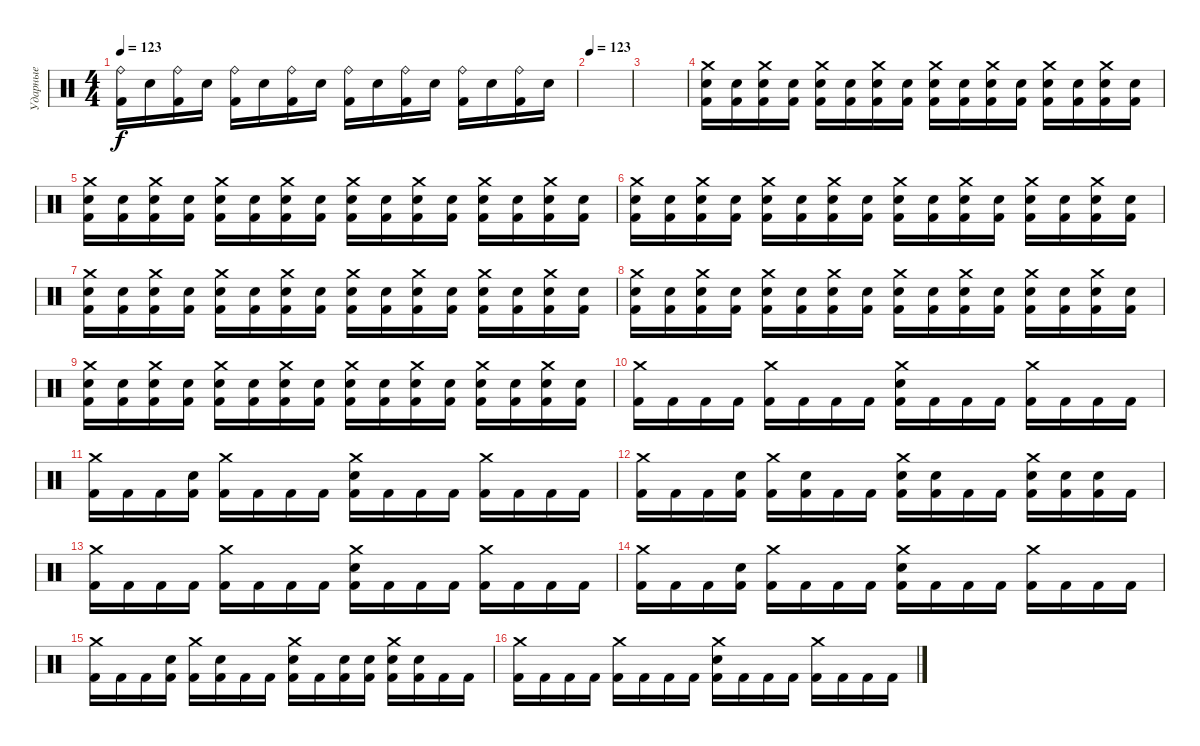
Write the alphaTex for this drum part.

\track ("Ударные" "Ударные") {instrument percussion}
\staff {score}
\articulation defaults
\ts (4 4)
\tempo 123
\clef neutral
\ks c
("Ride (bell)" "Kick (hit) 2").16{dy f} "Electric Snare (hit)".16 ("Ride (bell)" "Kick (hit) 2").16 "Electric Snare (hit)".16 ("Ride (bell)" "Kick (hit) 2").16 "Electric Snare (hit)".16 ("Ride (bell)" "Kick (hit) 2").16 "Electric Snare (hit)".16 ("Ride (bell)" "Kick (hit) 2").16 "Electric Snare (hit)".16 ("Ride (bell)" "Kick (hit) 2").16 "Electric Snare (hit)".16 ("Ride (bell)" "Kick (hit) 2").16 "Electric Snare (hit)".16 ("Ride (bell)" "Kick (hit) 2").16 "Electric Snare (hit)".16 |
\tempo 123
|
|
("Crash medium (hit)" "Electric Snare (hit)" "Kick (hit) 2").16 ("Electric Snare (hit)" "Kick (hit) 2").16 ("Crash medium (hit)" "Electric Snare (hit)" "Kick (hit) 2").16 ("Electric Snare (hit)" "Kick (hit) 2").16 ("Crash medium (hit)" "Electric Snare (hit)" "Kick (hit) 2").16 ("Electric Snare (hit)" "Kick (hit) 2").16 ("Crash medium (hit)" "Electric Snare (hit)" "Kick (hit) 2").16 ("Electric Snare (hit)" "Kick (hit) 2").16 ("Crash medium (hit)" "Electric Snare (hit)" "Kick (hit) 2").16 ("Electric Snare (hit)" "Kick (hit) 2").16 ("Crash medium (hit)" "Electric Snare (hit)" "Kick (hit) 2").16 ("Electric Snare (hit)" "Kick (hit) 2").16 ("Crash medium (hit)" "Electric Snare (hit)" "Kick (hit) 2").16 ("Electric Snare (hit)" "Kick (hit) 2").16 ("Crash medium (hit)" "Electric Snare (hit)" "Kick (hit) 2").16 ("Electric Snare (hit)" "Kick (hit) 2").16 |
("Crash medium (hit)" "Electric Snare (hit)" "Kick (hit) 2").16 ("Electric Snare (hit)" "Kick (hit) 2").16 ("Crash medium (hit)" "Electric Snare (hit)" "Kick (hit) 2").16 ("Electric Snare (hit)" "Kick (hit) 2").16 ("Crash medium (hit)" "Electric Snare (hit)" "Kick (hit) 2").16 ("Electric Snare (hit)" "Kick (hit) 2").16 ("Crash medium (hit)" "Electric Snare (hit)" "Kick (hit) 2").16 ("Electric Snare (hit)" "Kick (hit) 2").16 ("Crash medium (hit)" "Electric Snare (hit)" "Kick (hit) 2").16 ("Electric Snare (hit)" "Kick (hit) 2").16 ("Crash medium (hit)" "Electric Snare (hit)" "Kick (hit) 2").16 ("Electric Snare (hit)" "Kick (hit) 2").16 ("Crash medium (hit)" "Electric Snare (hit)" "Kick (hit) 2").16 ("Electric Snare (hit)" "Kick (hit) 2").16 ("Crash medium (hit)" "Electric Snare (hit)" "Kick (hit) 2").16 ("Electric Snare (hit)" "Kick (hit) 2").16 |
("Crash medium (hit)" "Electric Snare (hit)" "Kick (hit) 2").16 ("Electric Snare (hit)" "Kick (hit) 2").16 ("Crash medium (hit)" "Electric Snare (hit)" "Kick (hit) 2").16 ("Electric Snare (hit)" "Kick (hit) 2").16 ("Crash medium (hit)" "Electric Snare (hit)" "Kick (hit) 2").16 ("Electric Snare (hit)" "Kick (hit) 2").16 ("Crash medium (hit)" "Electric Snare (hit)" "Kick (hit) 2").16 ("Electric Snare (hit)" "Kick (hit) 2").16 ("Crash medium (hit)" "Electric Snare (hit)" "Kick (hit) 2").16 ("Electric Snare (hit)" "Kick (hit) 2").16 ("Crash medium (hit)" "Electric Snare (hit)" "Kick (hit) 2").16 ("Electric Snare (hit)" "Kick (hit) 2").16 ("Crash medium (hit)" "Electric Snare (hit)" "Kick (hit) 2").16 ("Electric Snare (hit)" "Kick (hit) 2").16 ("Crash medium (hit)" "Electric Snare (hit)" "Kick (hit) 2").16 ("Electric Snare (hit)" "Kick (hit) 2").16 |
("Crash medium (hit)" "Electric Snare (hit)" "Kick (hit) 2").16 ("Electric Snare (hit)" "Kick (hit) 2").16 ("Crash medium (hit)" "Electric Snare (hit)" "Kick (hit) 2").16 ("Electric Snare (hit)" "Kick (hit) 2").16 ("Crash medium (hit)" "Electric Snare (hit)" "Kick (hit) 2").16 ("Electric Snare (hit)" "Kick (hit) 2").16 ("Crash medium (hit)" "Electric Snare (hit)" "Kick (hit) 2").16 ("Electric Snare (hit)" "Kick (hit) 2").16 ("Crash medium (hit)" "Electric Snare (hit)" "Kick (hit) 2").16 ("Electric Snare (hit)" "Kick (hit) 2").16 ("Crash medium (hit)" "Electric Snare (hit)" "Kick (hit) 2").16 ("Electric Snare (hit)" "Kick (hit) 2").16 ("Crash medium (hit)" "Electric Snare (hit)" "Kick (hit) 2").16 ("Electric Snare (hit)" "Kick (hit) 2").16 ("Crash medium (hit)" "Electric Snare (hit)" "Kick (hit) 2").16 ("Electric Snare (hit)" "Kick (hit) 2").16 |
("Crash medium (hit)" "Electric Snare (hit)" "Kick (hit) 2").16 ("Electric Snare (hit)" "Kick (hit) 2").16 ("Crash medium (hit)" "Electric Snare (hit)" "Kick (hit) 2").16 ("Electric Snare (hit)" "Kick (hit) 2").16 ("Crash medium (hit)" "Electric Snare (hit)" "Kick (hit) 2").16 ("Electric Snare (hit)" "Kick (hit) 2").16 ("Crash medium (hit)" "Electric Snare (hit)" "Kick (hit) 2").16 ("Electric Snare (hit)" "Kick (hit) 2").16 ("Crash medium (hit)" "Electric Snare (hit)" "Kick (hit) 2").16 ("Electric Snare (hit)" "Kick (hit) 2").16 ("Crash medium (hit)" "Electric Snare (hit)" "Kick (hit) 2").16 ("Electric Snare (hit)" "Kick (hit) 2").16 ("Crash medium (hit)" "Electric Snare (hit)" "Kick (hit) 2").16 ("Electric Snare (hit)" "Kick (hit) 2").16 ("Crash medium (hit)" "Electric Snare (hit)" "Kick (hit) 2").16 ("Electric Snare (hit)" "Kick (hit) 2").16 |
("Crash medium (hit)" "Electric Snare (hit)" "Kick (hit) 2").16 ("Electric Snare (hit)" "Kick (hit) 2").16 ("Crash medium (hit)" "Electric Snare (hit)" "Kick (hit) 2").16 ("Electric Snare (hit)" "Kick (hit) 2").16 ("Crash medium (hit)" "Electric Snare (hit)" "Kick (hit) 2").16 ("Electric Snare (hit)" "Kick (hit) 2").16 ("Crash medium (hit)" "Electric Snare (hit)" "Kick (hit) 2").16 ("Electric Snare (hit)" "Kick (hit) 2").16 ("Crash medium (hit)" "Electric Snare (hit)" "Kick (hit) 2").16 ("Electric Snare (hit)" "Kick (hit) 2").16 ("Crash medium (hit)" "Electric Snare (hit)" "Kick (hit) 2").16 ("Electric Snare (hit)" "Kick (hit) 2").16 ("Crash medium (hit)" "Electric Snare (hit)" "Kick (hit) 2").16 ("Electric Snare (hit)" "Kick (hit) 2").16 ("Crash medium (hit)" "Electric Snare (hit)" "Kick (hit) 2").16 ("Electric Snare (hit)" "Kick (hit) 2").16 |
("Crash medium (hit)" "Kick (hit) 2").16 "Kick (hit) 2".16 "Kick (hit) 2".16 "Kick (hit) 2".16 ("Crash medium (hit)" "Kick (hit) 2").16 "Kick (hit) 2".16 "Kick (hit) 2".16 "Kick (hit) 2".16 ("Electric Snare (hit)" "Crash medium (hit)" "Kick (hit) 2").16 "Kick (hit) 2".16 "Kick (hit) 2".16 "Kick (hit) 2".16 ("Crash medium (hit)" "Kick (hit) 2").16 "Kick (hit) 2".16 "Kick (hit) 2".16 "Kick (hit) 2".16 |
("Crash medium (hit)" "Kick (hit) 2").16 "Kick (hit) 2".16 "Kick (hit) 2".16 ("Electric Snare (hit)" "Kick (hit) 2").16 ("Crash medium (hit)" "Kick (hit) 2").16 "Kick (hit) 2".16 "Kick (hit) 2".16 "Kick (hit) 2".16 ("Electric Snare (hit)" "Crash medium (hit)" "Kick (hit) 2").16 "Kick (hit) 2".16 "Kick (hit) 2".16 "Kick (hit) 2".16 ("Crash medium (hit)" "Kick (hit) 2").16 "Kick (hit) 2".16 "Kick (hit) 2".16 "Kick (hit) 2".16 |
("Crash medium (hit)" "Kick (hit) 2").16 "Kick (hit) 2".16 "Kick (hit) 2".16 ("Electric Snare (hit)" "Kick (hit) 2").16 ("Crash medium (hit)" "Kick (hit) 2").16 ("Electric Snare (hit)" "Kick (hit) 2").16 "Kick (hit) 2".16 "Kick (hit) 2".16 ("Electric Snare (hit)" "Crash medium (hit)" "Kick (hit) 2").16 ("Electric Snare (hit)" "Kick (hit) 2").16 "Kick (hit) 2".16 "Kick (hit) 2".16 ("Electric Snare (hit)" "Crash medium (hit)" "Kick (hit) 2").16 ("Electric Snare (hit)" "Kick (hit) 2").16 ("Electric Snare (hit)" "Kick (hit) 2").16 "Kick (hit) 2".16 |
("Crash medium (hit)" "Kick (hit) 2").16 "Kick (hit) 2".16 "Kick (hit) 2".16 "Kick (hit) 2".16 ("Crash medium (hit)" "Kick (hit) 2").16 "Kick (hit) 2".16 "Kick (hit) 2".16 "Kick (hit) 2".16 ("Electric Snare (hit)" "Crash medium (hit)" "Kick (hit) 2").16 "Kick (hit) 2".16 "Kick (hit) 2".16 "Kick (hit) 2".16 ("Crash medium (hit)" "Kick (hit) 2").16 "Kick (hit) 2".16 "Kick (hit) 2".16 "Kick (hit) 2".16 |
("Crash medium (hit)" "Kick (hit) 2").16 "Kick (hit) 2".16 "Kick (hit) 2".16 ("Electric Snare (hit)" "Kick (hit) 2").16 ("Crash medium (hit)" "Kick (hit) 2").16 "Kick (hit) 2".16 "Kick (hit) 2".16 "Kick (hit) 2".16 ("Electric Snare (hit)" "Crash medium (hit)" "Kick (hit) 2").16 "Kick (hit) 2".16 "Kick (hit) 2".16 "Kick (hit) 2".16 ("Crash medium (hit)" "Kick (hit) 2").16 "Kick (hit) 2".16 "Kick (hit) 2".16 "Kick (hit) 2".16 |
("Crash medium (hit)" "Kick (hit) 2").16 "Kick (hit) 2".16 "Kick (hit) 2".16 ("Electric Snare (hit)" "Kick (hit) 2").16 ("Crash medium (hit)" "Kick (hit) 2").16 ("Electric Snare (hit)" "Kick (hit) 2").16 "Kick (hit) 2".16 "Kick (hit) 2".16 ("Electric Snare (hit)" "Crash medium (hit)" "Kick (hit) 2").16 "Kick (hit) 2".16 ("Electric Snare (hit)" "Kick (hit) 2").16 ("Electric Snare (hit)" "Kick (hit) 2").16 ("Electric Snare (hit)" "Crash medium (hit)" "Kick (hit) 2").16 ("Electric Snare (hit)" "Kick (hit) 2").16 "Kick (hit) 2".16 "Kick (hit) 2".16 |
("Crash medium (hit)" "Kick (hit) 2").16 "Kick (hit) 2".16 "Kick (hit) 2".16 "Kick (hit) 2".16 ("Crash medium (hit)" "Kick (hit) 2").16 "Kick (hit) 2".16 "Kick (hit) 2".16 "Kick (hit) 2".16 ("Electric Snare (hit)" "Crash medium (hit)" "Kick (hit) 2").16 "Kick (hit) 2".16 "Kick (hit) 2".16 "Kick (hit) 2".16 ("Crash medium (hit)" "Kick (hit) 2").16 "Kick (hit) 2".16 "Kick (hit) 2".16 "Kick (hit) 2".16
